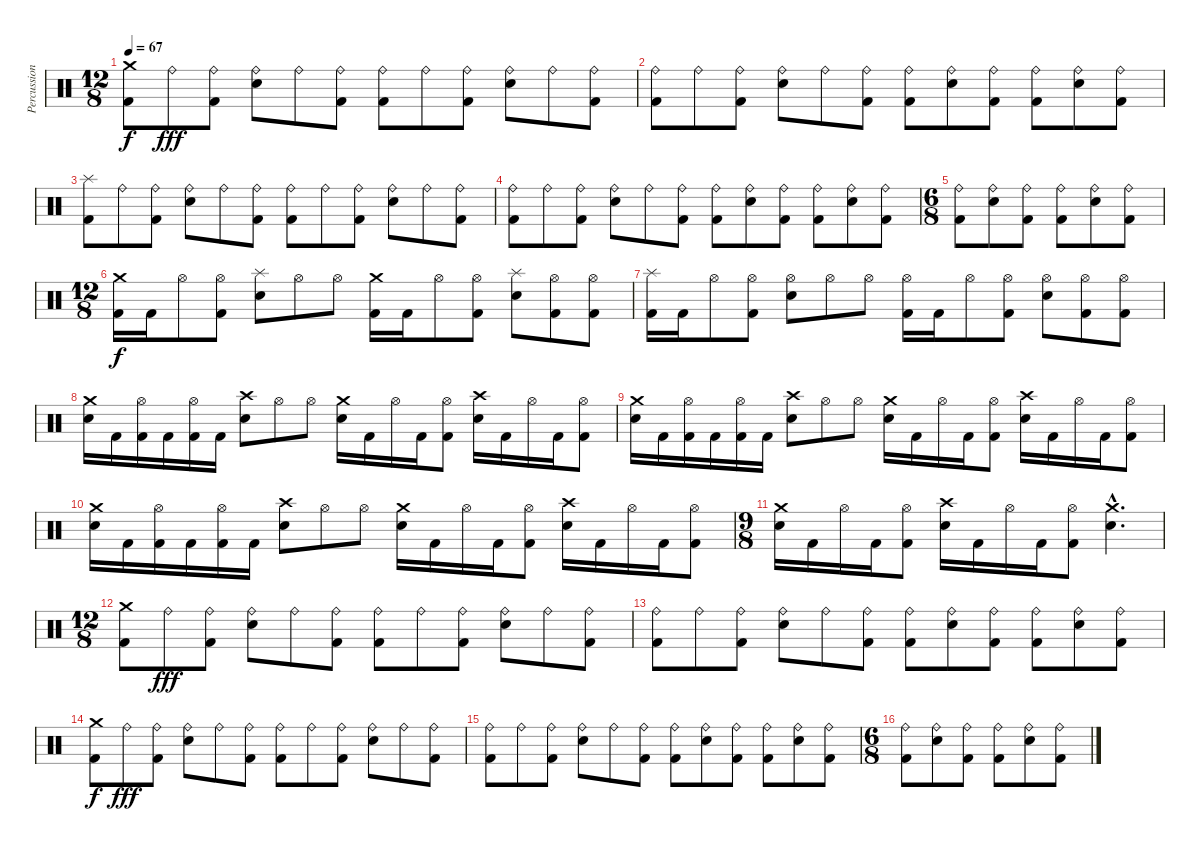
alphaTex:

\track ("Percussions" "Percussion") {instrument percussion}
\staff {score}
\articulation defaults
\ts (12 8)
\tempo 67
\clef neutral
\ks c
("Kick (hit) 2" "Crash medium (hit)").8{dy f} "Ride (bell)".8{dy fff} ("Kick (hit) 2" "Ride (bell)").8 ("Electric Snare (hit)" "Ride (bell)").8 "Ride (bell)".8 ("Kick (hit) 2" "Ride (bell)").8 ("Kick (hit) 2" "Ride (bell)").8 "Ride (bell)".8 ("Kick (hit) 2" "Ride (bell)").8 ("Electric Snare (hit)" "Ride (bell)").8 "Ride (bell)".8 ("Kick (hit) 2" "Ride (bell)").8 |
("Kick (hit) 2" "Ride (bell)").8 "Ride (bell)".8 ("Kick (hit) 2" "Ride (bell)").8 ("Electric Snare (hit)" "Ride (bell)").8 "Ride (bell)".8 ("Kick (hit) 2" "Ride (bell)").8 ("Kick (hit) 2" "Ride (bell)").8 ("Electric Snare (hit)" "Ride (bell)").8 ("Kick (hit) 2" "Ride (bell)").8 ("Kick (hit) 2" "Ride (bell)").8 ("Electric Snare (hit)" "Ride (bell)").8 ("Kick (hit) 2" "Ride (bell)").8 |
("Kick (hit) 2" "Splash (hit)").8 "Ride (bell)".8 ("Kick (hit) 2" "Ride (bell)").8 ("Electric Snare (hit)" "Ride (bell)").8 "Ride (bell)".8 ("Kick (hit) 2" "Ride (bell)").8 ("Kick (hit) 2" "Ride (bell)").8 "Ride (bell)".8 ("Kick (hit) 2" "Ride (bell)").8 ("Electric Snare (hit)" "Ride (bell)").8 "Ride (bell)".8 ("Kick (hit) 2" "Ride (bell)").8 |
("Kick (hit) 2" "Ride (bell)").8 "Ride (bell)".8 ("Kick (hit) 2" "Ride (bell)").8 ("Electric Snare (hit)" "Ride (bell)").8 "Ride (bell)".8 ("Kick (hit) 2" "Ride (bell)").8 ("Kick (hit) 2" "Ride (bell)").8 ("Electric Snare (hit)" "Ride (bell)").8 ("Kick (hit) 2" "Ride (bell)").8 ("Kick (hit) 2" "Ride (bell)").8 ("Electric Snare (hit)" "Ride (bell)").8 ("Kick (hit) 2" "Ride (bell)").8 |
\ts (6 8)
("Kick (hit) 2" "Ride (bell)").8 ("Electric Snare (hit)" "Ride (bell)").8 ("Kick (hit) 2" "Ride (bell)").8 ("Kick (hit) 2" "Ride (bell)").8 ("Electric Snare (hit)" "Ride (bell)").8 ("Kick (hit) 2" "Ride (bell)").8 |
\ts (12 8)
("Kick (hit) 2" "Crash medium (hit)").16{dy f} "Kick (hit) 2".16 "Hi-Hat (open)".8 ("Kick (hit) 2" "Hi-Hat (open)").8 ("Electric Snare (hit)" "Splash (hit)").8 "Hi-Hat (open)".8 "Hi-Hat (open)".8 ("Kick (hit) 2" "Crash medium (hit)").16 "Kick (hit) 2".16 "Hi-Hat (open)".8 ("Kick (hit) 2" "Hi-Hat (open)").8 ("Electric Snare (hit)" "Splash (hit)").8 ("Kick (hit) 2" "Hi-Hat (open)").8 ("Kick (hit) 2" "Hi-Hat (open)").8 |
("Kick (hit) 2" "Splash (hit)").16 "Kick (hit) 2".16 "Hi-Hat (open)".8 ("Kick (hit) 2" "Hi-Hat (open)").8 ("Electric Snare (hit)" "Hi-Hat (open)").8 "Hi-Hat (open)".8 "Hi-Hat (open)".8 ("Kick (hit) 2" "Hi-Hat (open)").16 "Kick (hit) 2".16 "Hi-Hat (open)".8 ("Kick (hit) 2" "Hi-Hat (open)").8 ("Electric Snare (hit)" "Hi-Hat (open)").8 ("Kick (hit) 2" "Hi-Hat (open)").8 ("Kick (hit) 2" "Hi-Hat (open)").8 |
("Electric Snare (hit)" "Crash medium (hit)").16 "Kick (hit) 2".16 ("Kick (hit) 2" "Hi-Hat (open)").16 "Kick (hit) 2".16 ("Kick (hit) 2" "Hi-Hat (open)").16 "Kick (hit) 2".16 ("Electric Snare (hit)" "Crash high (hit)").8 "Hi-Hat (open)".8 "Hi-Hat (open)".8 ("Electric Snare (hit)" "Crash medium (hit)").16 "Kick (hit) 2".16 "Hi-Hat (open)".16 "Kick (hit) 2".16 ("Kick (hit) 2" "Hi-Hat (open)").8 ("Electric Snare (hit)" "Crash high (hit)").16 "Kick (hit) 2".16 "Hi-Hat (open)".16 "Kick (hit) 2".16 ("Kick (hit) 2" "Hi-Hat (open)").8 |
("Electric Snare (hit)" "Crash medium (hit)").16 "Kick (hit) 2".16 ("Kick (hit) 2" "Hi-Hat (open)").16 "Kick (hit) 2".16 ("Kick (hit) 2" "Hi-Hat (open)").16 "Kick (hit) 2".16 ("Electric Snare (hit)" "Crash high (hit)").8 "Hi-Hat (open)".8 "Hi-Hat (open)".8 ("Electric Snare (hit)" "Crash medium (hit)").16 "Kick (hit) 2".16 "Hi-Hat (open)".16 "Kick (hit) 2".16 ("Kick (hit) 2" "Hi-Hat (open)").8 ("Electric Snare (hit)" "Crash high (hit)").16 "Kick (hit) 2".16 "Hi-Hat (open)".16 "Kick (hit) 2".16 ("Kick (hit) 2" "Hi-Hat (open)").8 |
("Electric Snare (hit)" "Crash medium (hit)").16 "Kick (hit) 2".16 ("Kick (hit) 2" "Hi-Hat (open)").16 "Kick (hit) 2".16 ("Kick (hit) 2" "Hi-Hat (open)").16 "Kick (hit) 2".16 ("Electric Snare (hit)" "Crash high (hit)").8 "Hi-Hat (open)".8 "Hi-Hat (open)".8 ("Electric Snare (hit)" "Crash medium (hit)").16 "Kick (hit) 2".16 "Hi-Hat (open)".16 "Kick (hit) 2".16 ("Kick (hit) 2" "Hi-Hat (open)").8 ("Electric Snare (hit)" "Crash high (hit)").16 "Kick (hit) 2".16 "Hi-Hat (open)".16 "Kick (hit) 2".16 ("Kick (hit) 2" "Hi-Hat (open)").8 |
\ts (9 8)
("Electric Snare (hit)" "Crash medium (hit)").16 "Kick (hit) 2".16 "Hi-Hat (open)".16 "Kick (hit) 2".16 ("Kick (hit) 2" "Hi-Hat (open)").8 ("Electric Snare (hit)" "Crash high (hit)").16 "Kick (hit) 2".16 "Hi-Hat (open)".16 "Kick (hit) 2".16 ("Kick (hit) 2" "Hi-Hat (open)").8 ("Electric Snare (hit)"{hac} "Crash medium (hit)"{hac}).4{d} |
\ts (12 8)
("Kick (hit) 2" "Crash medium (hit)").8 "Ride (bell)".8{dy fff} ("Kick (hit) 2" "Ride (bell)").8 ("Electric Snare (hit)" "Ride (bell)").8 "Ride (bell)".8 ("Kick (hit) 2" "Ride (bell)").8 ("Kick (hit) 2" "Ride (bell)").8 "Ride (bell)".8 ("Kick (hit) 2" "Ride (bell)").8 ("Electric Snare (hit)" "Ride (bell)").8 "Ride (bell)".8 ("Kick (hit) 2" "Ride (bell)").8 |
("Kick (hit) 2" "Ride (bell)").8 "Ride (bell)".8 ("Kick (hit) 2" "Ride (bell)").8 ("Electric Snare (hit)" "Ride (bell)").8 "Ride (bell)".8 ("Kick (hit) 2" "Ride (bell)").8 ("Kick (hit) 2" "Ride (bell)").8 ("Electric Snare (hit)" "Ride (bell)").8 ("Kick (hit) 2" "Ride (bell)").8 ("Kick (hit) 2" "Ride (bell)").8 ("Electric Snare (hit)" "Ride (bell)").8 ("Kick (hit) 2" "Ride (bell)").8 |
("Kick (hit) 2" "Crash medium (hit)").8{dy f} "Ride (bell)".8{dy fff} ("Kick (hit) 2" "Ride (bell)").8 ("Electric Snare (hit)" "Ride (bell)").8 "Ride (bell)".8 ("Kick (hit) 2" "Ride (bell)").8 ("Kick (hit) 2" "Ride (bell)").8 "Ride (bell)".8 ("Kick (hit) 2" "Ride (bell)").8 ("Electric Snare (hit)" "Ride (bell)").8 "Ride (bell)".8 ("Kick (hit) 2" "Ride (bell)").8 |
("Kick (hit) 2" "Ride (bell)").8 "Ride (bell)".8 ("Kick (hit) 2" "Ride (bell)").8 ("Electric Snare (hit)" "Ride (bell)").8 "Ride (bell)".8 ("Kick (hit) 2" "Ride (bell)").8 ("Kick (hit) 2" "Ride (bell)").8 ("Electric Snare (hit)" "Ride (bell)").8 ("Kick (hit) 2" "Ride (bell)").8 ("Kick (hit) 2" "Ride (bell)").8 ("Electric Snare (hit)" "Ride (bell)").8 ("Kick (hit) 2" "Ride (bell)").8 |
\ts (6 8)
("Kick (hit) 2" "Ride (bell)").8 ("Electric Snare (hit)" "Ride (bell)").8 ("Kick (hit) 2" "Ride (bell)").8 ("Kick (hit) 2" "Ride (bell)").8 ("Electric Snare (hit)" "Ride (bell)").8 ("Kick (hit) 2" "Ride (bell)").8
